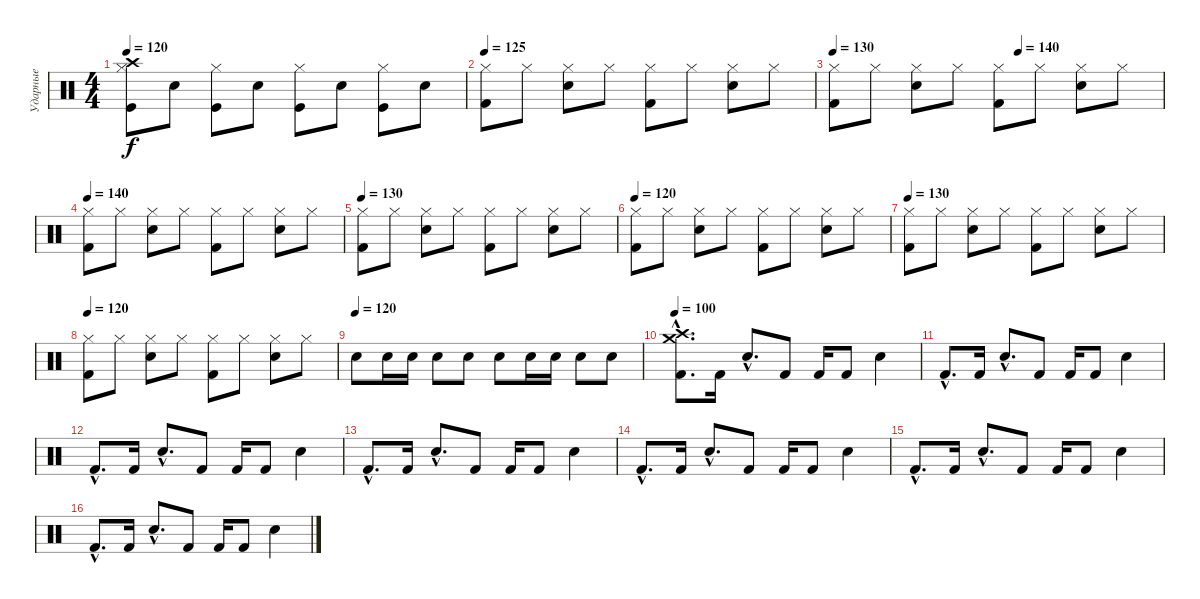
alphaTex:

\track ("Ударные" "Ударные") {instrument percussion}
\staff {score}
\articulation defaults
\ts (4 4)
\tempo 120
\clef neutral
\ks c
("Crash high (hit)" "Hi-Hat (closed)" "Kick (hit)").8{dy f} "Electric Snare (hit)".8 ("Hi-Hat (closed)" "Kick (hit)").8 "Electric Snare (hit)".8 ("Hi-Hat (closed)" "Kick (hit)").8 "Electric Snare (hit)".8 ("Hi-Hat (closed)" "Kick (hit)").8 "Electric Snare (hit)".8 |
\tempo 125
("Hi-Hat (closed)" "Kick (hit) 2").8 "Hi-Hat (closed)".8 ("Hi-Hat (closed)" "Electric Snare (hit)").8 "Hi-Hat (closed)".8 ("Hi-Hat (closed)" "Kick (hit) 2").8 "Hi-Hat (closed)".8 ("Hi-Hat (closed)" "Electric Snare (hit)").8 "Hi-Hat (closed)".8 |
\tempo 130
\tempo (140 0.5625)
("Hi-Hat (closed)" "Kick (hit) 2").8 "Hi-Hat (closed)".8 ("Hi-Hat (closed)" "Electric Snare (hit)").8 "Hi-Hat (closed)".8 ("Hi-Hat (closed)" "Kick (hit) 2").8 "Hi-Hat (closed)".8 ("Hi-Hat (closed)" "Electric Snare (hit)").8 "Hi-Hat (closed)".8 |
\tempo 130
\tempo 120
\tempo 140
("Hi-Hat (closed)" "Kick (hit) 2").8 "Hi-Hat (closed)".8 ("Hi-Hat (closed)" "Electric Snare (hit)").8 "Hi-Hat (closed)".8 ("Hi-Hat (closed)" "Kick (hit) 2").8 "Hi-Hat (closed)".8 ("Hi-Hat (closed)" "Electric Snare (hit)").8 "Hi-Hat (closed)".8 |
\tempo 130
("Hi-Hat (closed)" "Kick (hit) 2").8 "Hi-Hat (closed)".8 ("Hi-Hat (closed)" "Electric Snare (hit)").8 "Hi-Hat (closed)".8 ("Hi-Hat (closed)" "Kick (hit) 2").8 "Hi-Hat (closed)".8 ("Hi-Hat (closed)" "Electric Snare (hit)").8 "Hi-Hat (closed)".8 |
\tempo 130
\tempo 120
("Hi-Hat (closed)" "Kick (hit) 2").8 "Hi-Hat (closed)".8 ("Hi-Hat (closed)" "Electric Snare (hit)").8 "Hi-Hat (closed)".8 ("Hi-Hat (closed)" "Kick (hit) 2").8 "Hi-Hat (closed)".8 ("Hi-Hat (closed)" "Electric Snare (hit)").8 "Hi-Hat (closed)".8 |
\tempo 130
("Hi-Hat (closed)" "Kick (hit) 2").8 "Hi-Hat (closed)".8 ("Hi-Hat (closed)" "Electric Snare (hit)").8 "Hi-Hat (closed)".8 ("Hi-Hat (closed)" "Kick (hit) 2").8 "Hi-Hat (closed)".8 ("Hi-Hat (closed)" "Electric Snare (hit)").8 "Hi-Hat (closed)".8 |
\tempo 130
\tempo 120
("Hi-Hat (closed)" "Kick (hit) 2").8 "Hi-Hat (closed)".8 ("Hi-Hat (closed)" "Electric Snare (hit)").8 "Hi-Hat (closed)".8 ("Hi-Hat (closed)" "Kick (hit) 2").8 "Hi-Hat (closed)".8 ("Hi-Hat (closed)" "Electric Snare (hit)").8 "Hi-Hat (closed)".8 |
\tempo 205
\tempo (120)
"Electric Snare (hit)".8 "Electric Snare (hit)".16 "Electric Snare (hit)".16 "Electric Snare (hit)".8 "Electric Snare (hit)".8 "Electric Snare (hit)".8 "Electric Snare (hit)".16 "Electric Snare (hit)".16 "Electric Snare (hit)".8 "Electric Snare (hit)".8 |
\tempo 100
("Kick (hit) 2"{hac} "Crash high (hit)"{hac} "Crash medium (hit)"{hac}).8{d} "Kick (hit) 2".16 "Snare (hit) 2"{hac}.8{d} "Kick (hit) 2".8 "Kick (hit) 2".16 "Kick (hit) 2".8 "Snare (hit) 2".4 |
"Kick (hit) 2"{hac}.8{d} "Kick (hit) 2".16 "Snare (hit) 2"{hac}.8{d} "Kick (hit) 2".8 "Kick (hit) 2".16 "Kick (hit) 2".8 "Snare (hit) 2".4 |
"Kick (hit) 2"{hac}.8{d} "Kick (hit) 2".16 "Snare (hit) 2"{hac}.8{d} "Kick (hit) 2".8 "Kick (hit) 2".16 "Kick (hit) 2".8 "Snare (hit) 2".4 |
"Kick (hit) 2"{hac}.8{d} "Kick (hit) 2".16 "Snare (hit) 2"{hac}.8{d} "Kick (hit) 2".8 "Kick (hit) 2".16 "Kick (hit) 2".8 "Snare (hit) 2".4 |
"Kick (hit) 2"{hac}.8{d} "Kick (hit) 2".16 "Snare (hit) 2"{hac}.8{d} "Kick (hit) 2".8 "Kick (hit) 2".16 "Kick (hit) 2".8 "Snare (hit) 2".4 |
"Kick (hit) 2"{hac}.8{d} "Kick (hit) 2".16 "Snare (hit) 2"{hac}.8{d} "Kick (hit) 2".8 "Kick (hit) 2".16 "Kick (hit) 2".8 "Snare (hit) 2".4 |
"Kick (hit) 2"{hac}.8{d} "Kick (hit) 2".16 "Snare (hit) 2"{hac}.8{d} "Kick (hit) 2".8 "Kick (hit) 2".16 "Kick (hit) 2".8 "Snare (hit) 2".4
